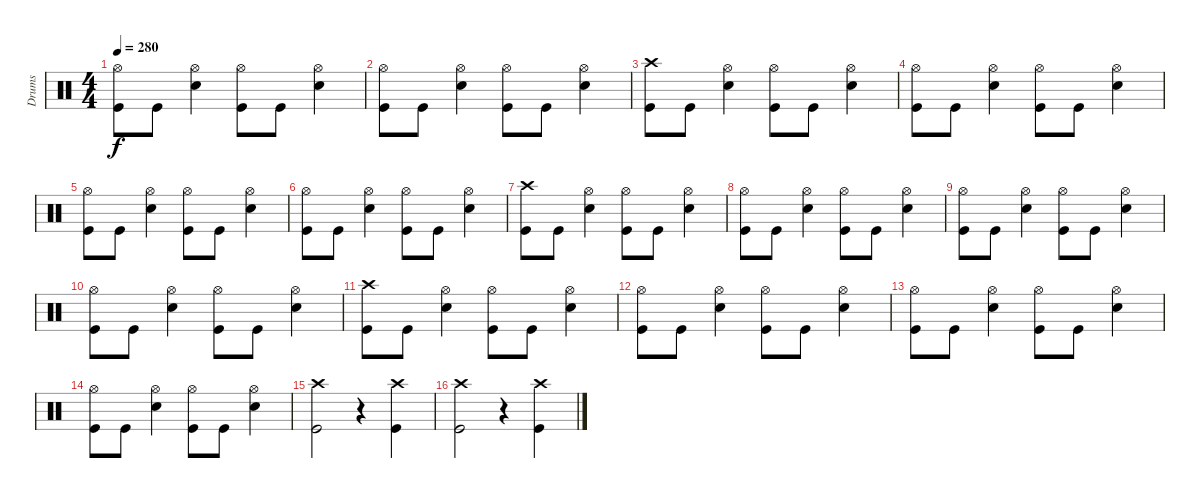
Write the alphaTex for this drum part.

\track ("Drums" "Drums") {instrument percussion}
\staff {score}
\articulation defaults
\ts (4 4)
\tempo 280
\clef neutral
\ks c
("Hi-Hat (open)" "Kick (hit)").8{dy f} "Kick (hit)".8 ("Hi-Hat (open)" "Electric Snare (hit)").4 ("Hi-Hat (open)" "Kick (hit)").8 "Kick (hit)".8 ("Hi-Hat (open)" "Electric Snare (hit)").4 |
("Hi-Hat (open)" "Kick (hit)").8 "Kick (hit)".8 ("Hi-Hat (open)" "Electric Snare (hit)").4 ("Hi-Hat (open)" "Kick (hit)").8 "Kick (hit)".8 ("Hi-Hat (open)" "Electric Snare (hit)").4 |
("Crash high (hit)" "Kick (hit)").8 "Kick (hit)".8 ("Hi-Hat (open)" "Electric Snare (hit)").4 ("Hi-Hat (open)" "Kick (hit)").8 "Kick (hit)".8 ("Hi-Hat (open)" "Electric Snare (hit)").4 |
("Hi-Hat (open)" "Kick (hit)").8 "Kick (hit)".8 ("Hi-Hat (open)" "Electric Snare (hit)").4 ("Hi-Hat (open)" "Kick (hit)").8 "Kick (hit)".8 ("Hi-Hat (open)" "Electric Snare (hit)").4 |
("Hi-Hat (open)" "Kick (hit)").8 "Kick (hit)".8 ("Hi-Hat (open)" "Electric Snare (hit)").4 ("Hi-Hat (open)" "Kick (hit)").8 "Kick (hit)".8 ("Hi-Hat (open)" "Electric Snare (hit)").4 |
("Hi-Hat (open)" "Kick (hit)").8 "Kick (hit)".8 ("Hi-Hat (open)" "Electric Snare (hit)").4 ("Hi-Hat (open)" "Kick (hit)").8 "Kick (hit)".8 ("Hi-Hat (open)" "Electric Snare (hit)").4 |
("Crash high (hit)" "Kick (hit)").8 "Kick (hit)".8 ("Hi-Hat (open)" "Electric Snare (hit)").4 ("Hi-Hat (open)" "Kick (hit)").8 "Kick (hit)".8 ("Hi-Hat (open)" "Electric Snare (hit)").4 |
("Hi-Hat (open)" "Kick (hit)").8 "Kick (hit)".8 ("Hi-Hat (open)" "Electric Snare (hit)").4 ("Hi-Hat (open)" "Kick (hit)").8 "Kick (hit)".8 ("Hi-Hat (open)" "Electric Snare (hit)").4 |
("Hi-Hat (open)" "Kick (hit)").8 "Kick (hit)".8 ("Hi-Hat (open)" "Electric Snare (hit)").4 ("Hi-Hat (open)" "Kick (hit)").8 "Kick (hit)".8 ("Hi-Hat (open)" "Electric Snare (hit)").4 |
("Hi-Hat (open)" "Kick (hit)").8 "Kick (hit)".8 ("Hi-Hat (open)" "Electric Snare (hit)").4 ("Hi-Hat (open)" "Kick (hit)").8 "Kick (hit)".8 ("Hi-Hat (open)" "Electric Snare (hit)").4 |
("Crash high (hit)" "Kick (hit)").8 "Kick (hit)".8 ("Hi-Hat (open)" "Electric Snare (hit)").4 ("Hi-Hat (open)" "Kick (hit)").8 "Kick (hit)".8 ("Hi-Hat (open)" "Electric Snare (hit)").4 |
("Hi-Hat (open)" "Kick (hit)").8 "Kick (hit)".8 ("Hi-Hat (open)" "Electric Snare (hit)").4 ("Hi-Hat (open)" "Kick (hit)").8 "Kick (hit)".8 ("Hi-Hat (open)" "Electric Snare (hit)").4 |
("Hi-Hat (open)" "Kick (hit)").8 "Kick (hit)".8 ("Hi-Hat (open)" "Electric Snare (hit)").4 ("Hi-Hat (open)" "Kick (hit)").8 "Kick (hit)".8 ("Hi-Hat (open)" "Electric Snare (hit)").4 |
("Hi-Hat (open)" "Kick (hit)").8 "Kick (hit)".8 ("Hi-Hat (open)" "Electric Snare (hit)").4 ("Hi-Hat (open)" "Kick (hit)").8 "Kick (hit)".8 ("Hi-Hat (open)" "Electric Snare (hit)").4 |
("Crash high (hit)" "Kick (hit)").2 r.4 ("Crash high (hit)" "Kick (hit)").4 |
("Crash high (hit)" "Kick (hit)").2 r.4 ("Crash high (hit)" "Kick (hit)").4
